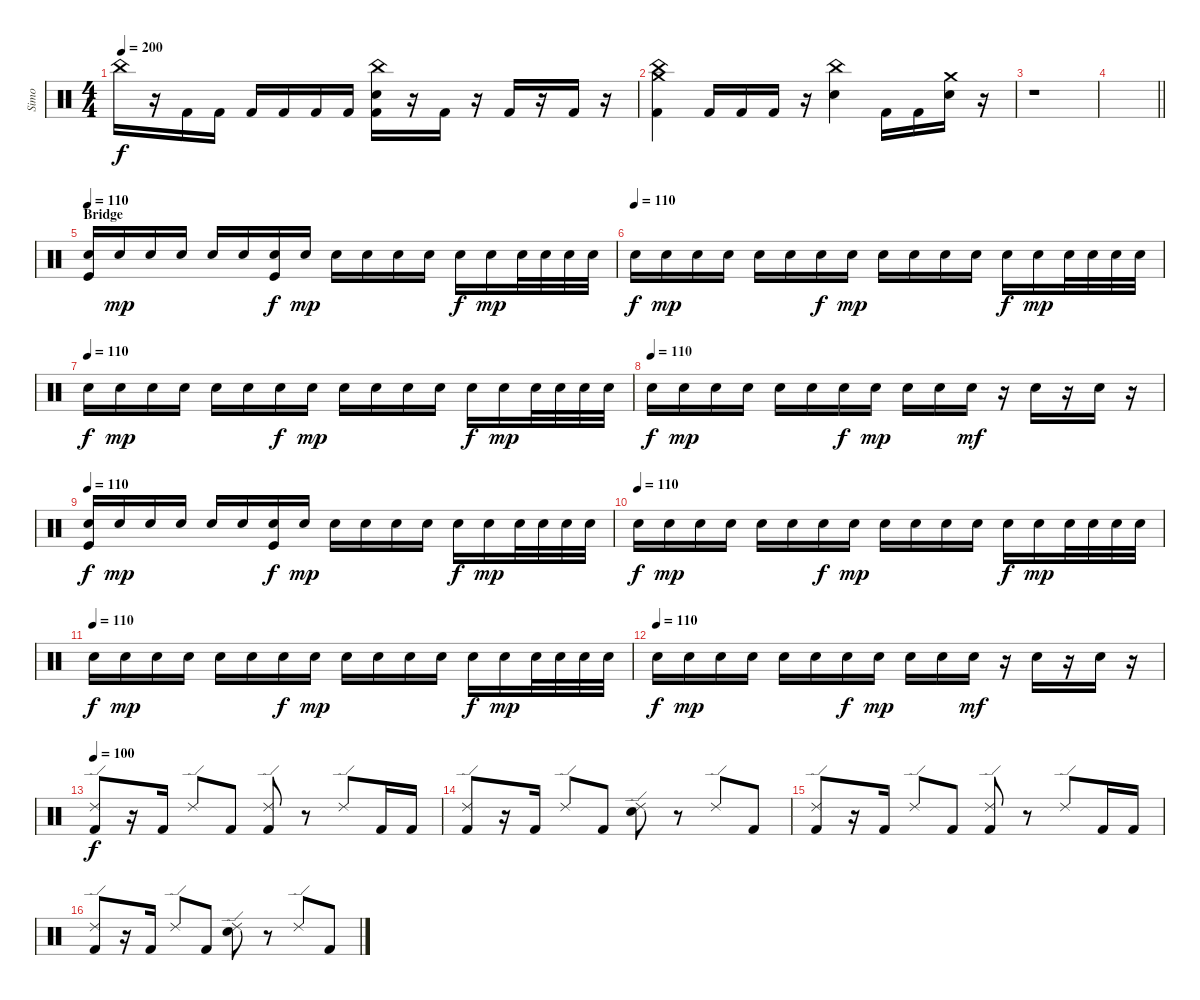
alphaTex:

\track ("Simo" "Simo") {instrument percussion bank 121}
\staff {score}
\articulation defaults
\ts (4 4)
\tempo 200
\clef neutral
\ks c "China (hit)".16{dy f}
r.16 "Kick (hit) 2".16 "Kick (hit) 2".16 "Kick (hit) 2".16 "Kick (hit) 2".16 "Kick (hit) 2".16 "Kick (hit) 2".16 ("Kick (hit) 2" "China (hit)" "Electric Snare (hit)").16 r.16 "Kick (hit) 2".16 r.16 "Kick (hit) 2".16 r.16 "Kick (hit) 2".16 r.16 |
("Kick (hit) 2" "China (hit)" "Crash medium (hit)").4 "Kick (hit) 2".16 "Kick (hit) 2".16 "Kick (hit) 2".16 r.16 ("Electric Snare (hit)" "China (hit)").4 "Kick (hit) 2".16 "Kick (hit) 2".16 ("Electric Snare (hit)" "Crash medium (hit)").16 r.16 |
r.1 |
\barLineRight lightlight
|
\section ("" "Bridge")
\tempo 100
\tempo 110
("Snare (hit) 2" "Kick (hit)").16 "Snare (hit) 2".16{dy mp} "Snare (hit) 2".16 "Snare (hit) 2".16 "Snare (hit) 2".16 "Snare (hit) 2".16 ("Snare (hit) 2" "Kick (hit)").16{dy f} "Snare (hit) 2".16{dy mp} "Snare (hit) 2".16 "Snare (hit) 2".16 "Snare (hit) 2".16 "Snare (hit) 2".16 "Snare (hit) 2".16{dy f} "Snare (hit) 2".16{dy mp} "Snare (hit) 2".32 "Snare (hit) 2".32 "Snare (hit) 2".32 "Snare (hit) 2".32 |
\tempo (110)
"Snare (hit) 2".16{dy f} "Snare (hit) 2".16{dy mp} "Snare (hit) 2".16 "Snare (hit) 2".16 "Snare (hit) 2".16 "Snare (hit) 2".16 "Snare (hit) 2".16{dy f} "Snare (hit) 2".16{dy mp} "Snare (hit) 2".16 "Snare (hit) 2".16 "Snare (hit) 2".16 "Snare (hit) 2".16 "Snare (hit) 2".16{dy f} "Snare (hit) 2".16{dy mp} "Snare (hit) 2".32 "Snare (hit) 2".32 "Snare (hit) 2".32 "Snare (hit) 2".32 |
\tempo (110)
"Snare (hit) 2".16{dy f} "Snare (hit) 2".16{dy mp} "Snare (hit) 2".16 "Snare (hit) 2".16 "Snare (hit) 2".16 "Snare (hit) 2".16 "Snare (hit) 2".16{dy f} "Snare (hit) 2".16{dy mp} "Snare (hit) 2".16 "Snare (hit) 2".16 "Snare (hit) 2".16 "Snare (hit) 2".16 "Snare (hit) 2".16{dy f} "Snare (hit) 2".16{dy mp} "Snare (hit) 2".32 "Snare (hit) 2".32 "Snare (hit) 2".32 "Snare (hit) 2".32 |
\tempo (110)
"Snare (hit) 2".16{dy f} "Snare (hit) 2".16{dy mp} "Snare (hit) 2".16 "Snare (hit) 2".16 "Snare (hit) 2".16 "Snare (hit) 2".16 "Snare (hit) 2".16{dy f} "Snare (hit) 2".16{dy mp} "Snare (hit) 2".16 "Snare (hit) 2".16 "Snare (hit) 2".16{dy mf} r.16 "Snare (hit) 2".16 r.16 "Snare (hit) 2".16 r.16 |
\tempo 100
\tempo 110
("Snare (hit) 2" "Kick (hit)").16{dy f} "Snare (hit) 2".16{dy mp} "Snare (hit) 2".16 "Snare (hit) 2".16 "Snare (hit) 2".16 "Snare (hit) 2".16 ("Snare (hit) 2" "Kick (hit)").16{dy f} "Snare (hit) 2".16{dy mp} "Snare (hit) 2".16 "Snare (hit) 2".16 "Snare (hit) 2".16 "Snare (hit) 2".16 "Snare (hit) 2".16{dy f} "Snare (hit) 2".16{dy mp} "Snare (hit) 2".32 "Snare (hit) 2".32 "Snare (hit) 2".32 "Snare (hit) 2".32 |
\tempo (110)
"Snare (hit) 2".16{dy f} "Snare (hit) 2".16{dy mp} "Snare (hit) 2".16 "Snare (hit) 2".16 "Snare (hit) 2".16 "Snare (hit) 2".16 "Snare (hit) 2".16{dy f} "Snare (hit) 2".16{dy mp} "Snare (hit) 2".16 "Snare (hit) 2".16 "Snare (hit) 2".16 "Snare (hit) 2".16 "Snare (hit) 2".16{dy f} "Snare (hit) 2".16{dy mp} "Snare (hit) 2".32 "Snare (hit) 2".32 "Snare (hit) 2".32 "Snare (hit) 2".32 |
\tempo (110)
"Snare (hit) 2".16{dy f} "Snare (hit) 2".16{dy mp} "Snare (hit) 2".16 "Snare (hit) 2".16 "Snare (hit) 2".16 "Snare (hit) 2".16 "Snare (hit) 2".16{dy f} "Snare (hit) 2".16{dy mp} "Snare (hit) 2".16 "Snare (hit) 2".16 "Snare (hit) 2".16 "Snare (hit) 2".16 "Snare (hit) 2".16{dy f} "Snare (hit) 2".16{dy mp} "Snare (hit) 2".32 "Snare (hit) 2".32 "Snare (hit) 2".32 "Snare (hit) 2".32 |
\tempo (110)
"Snare (hit) 2".16{dy f} "Snare (hit) 2".16{dy mp} "Snare (hit) 2".16 "Snare (hit) 2".16 "Snare (hit) 2".16 "Snare (hit) 2".16 "Snare (hit) 2".16{dy f} "Snare (hit) 2".16{dy mp} "Snare (hit) 2".16 "Snare (hit) 2".16 "Snare (hit) 2".16{dy mf} r.16 "Snare (hit) 2".16 r.16 "Snare (hit) 2".16 r.16 |
\tempo 100
("Kick (hit) 2" "Ride (edge) 2").8{dy f} r.16 "Kick (hit) 2".16 "Ride (edge) 2".8 "Kick (hit) 2".8 ("Kick (hit) 2" "Ride (edge) 2").8 r.8 "Ride (edge) 2".8 "Kick (hit) 2".16 "Kick (hit) 2".16 |
("Kick (hit) 2" "Ride (edge) 2").8 r.16 "Kick (hit) 2".16 "Ride (edge) 2".8 "Kick (hit) 2".8 ("Electric Snare (hit)" "Ride (edge) 2").8 r.8 "Ride (edge) 2".8 "Kick (hit) 2".8 |
("Kick (hit) 2" "Ride (edge) 2").8 r.16 "Kick (hit) 2".16 "Ride (edge) 2".8 "Kick (hit) 2".8 ("Kick (hit) 2" "Ride (edge) 2").8 r.8 "Ride (edge) 2".8 "Kick (hit) 2".16 "Kick (hit) 2".16 |
("Kick (hit) 2" "Ride (edge) 2").8 r.16 "Kick (hit) 2".16 "Ride (edge) 2".8 "Kick (hit) 2".8 ("Electric Snare (hit)" "Ride (edge) 2").8 r.8 "Ride (edge) 2".8 "Kick (hit) 2".8
